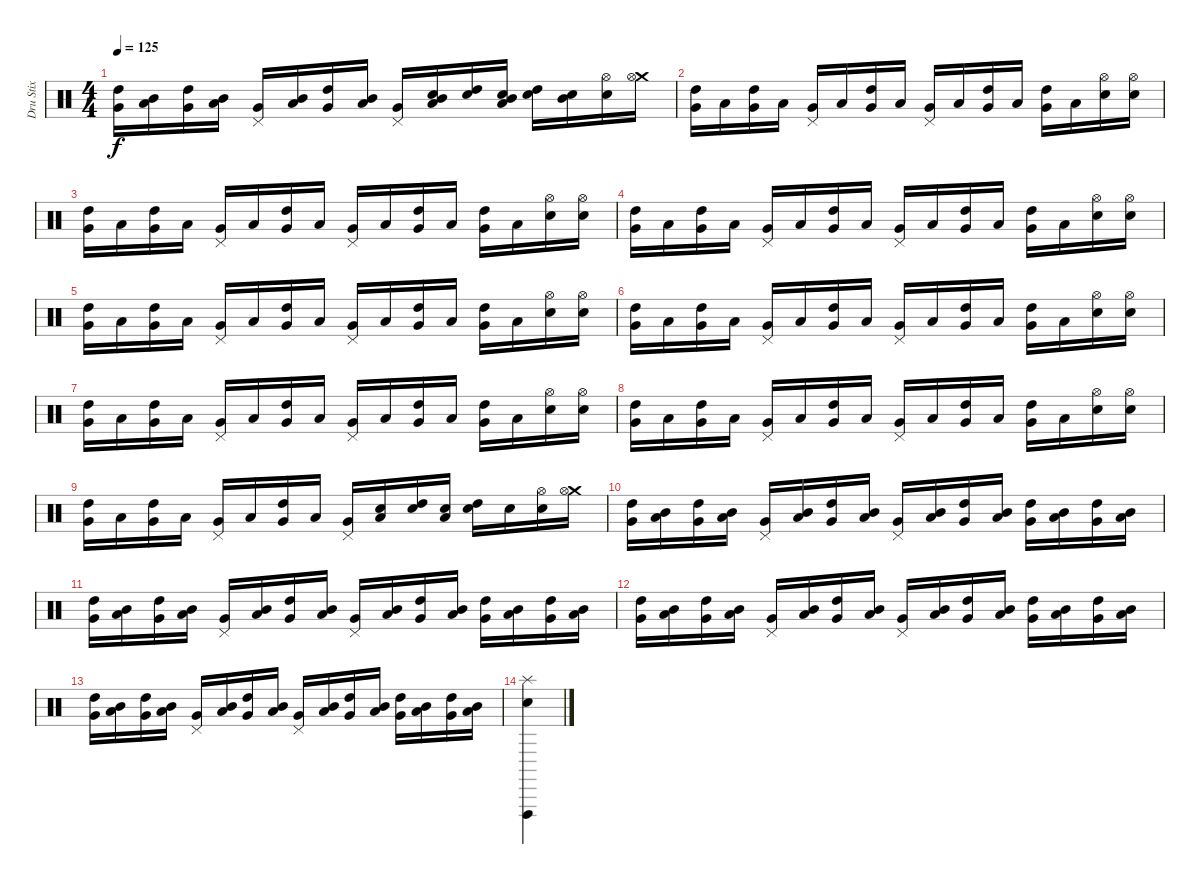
\track ("Dru Stix" "Dru Stix") {instrument percussion}
\staff {score}
\articulation defaults
\ts (4 4)
\tempo 125
\clef neutral
\ks c
("High Tom (hit)" "Very Low Tom (hit)").16{dy f} ("Mid Tom (hit)" "Low Floor Tom (hit)").16 ("High Tom (hit)" "Very Low Tom (hit)").16 ("Mid Tom (hit)" "Low Floor Tom (hit)").16 ("Pedal Hi-Hat (hit)" "Very Low Tom (hit)").16 ("Mid Tom (hit)" "Low Floor Tom (hit)").16 ("High Tom (hit)" "Very Low Tom (hit)").16 ("Mid Tom (hit)" "Low Floor Tom (hit)").16 ("Pedal Hi-Hat (hit)" "Very Low Tom (hit)").16 ("Mid Tom (hit)" "Low Floor Tom (hit)" "Snare (hit) 2").16 ("High Tom (hit)" "Snare (hit) 2").16 ("Mid Tom (hit)" "Low Floor Tom (hit)" "Snare (hit) 2").16 ("High Tom (hit)" "Snare (hit) 2").16 ("Mid Tom (hit)" "Snare (hit) 2").16 ("Hi-Hat (open)" "Snare (hit) 2").16 ("Crash medium (hit)" "Hi-Hat (open)").16 |
("High Tom (hit)" "Very Low Tom (hit)").16 "Low Floor Tom (hit)".16 ("High Tom (hit)" "Very Low Tom (hit)").16 "Low Floor Tom (hit)".16 ("Pedal Hi-Hat (hit)" "Very Low Tom (hit)").16 "Low Floor Tom (hit)".16 ("High Tom (hit)" "Very Low Tom (hit)").16 "Low Floor Tom (hit)".16 ("Pedal Hi-Hat (hit)" "Very Low Tom (hit)").16 "Low Floor Tom (hit)".16 ("High Tom (hit)" "Very Low Tom (hit)").16 "Low Floor Tom (hit)".16 ("High Tom (hit)" "Very Low Tom (hit)").16 "Low Floor Tom (hit)".16 ("Hi-Hat (open)" "Snare (hit) 2").16 ("Hi-Hat (open)" "Snare (hit) 2").16 |
("High Tom (hit)" "Very Low Tom (hit)").16 "Low Floor Tom (hit)".16 ("High Tom (hit)" "Very Low Tom (hit)").16 "Low Floor Tom (hit)".16 ("Pedal Hi-Hat (hit)" "Very Low Tom (hit)").16 "Low Floor Tom (hit)".16 ("High Tom (hit)" "Very Low Tom (hit)").16 "Low Floor Tom (hit)".16 ("Pedal Hi-Hat (hit)" "Very Low Tom (hit)").16 "Low Floor Tom (hit)".16 ("High Tom (hit)" "Very Low Tom (hit)").16 "Low Floor Tom (hit)".16 ("High Tom (hit)" "Very Low Tom (hit)").16 "Low Floor Tom (hit)".16 ("Hi-Hat (open)" "Snare (hit) 2").16 ("Hi-Hat (open)" "Snare (hit) 2").16 |
("High Tom (hit)" "Very Low Tom (hit)").16 "Low Floor Tom (hit)".16 ("High Tom (hit)" "Very Low Tom (hit)").16 "Low Floor Tom (hit)".16 ("Pedal Hi-Hat (hit)" "Very Low Tom (hit)").16 "Low Floor Tom (hit)".16 ("High Tom (hit)" "Very Low Tom (hit)").16 "Low Floor Tom (hit)".16 ("Pedal Hi-Hat (hit)" "Very Low Tom (hit)").16 "Low Floor Tom (hit)".16 ("High Tom (hit)" "Very Low Tom (hit)").16 "Low Floor Tom (hit)".16 ("High Tom (hit)" "Very Low Tom (hit)").16 "Low Floor Tom (hit)".16 ("Hi-Hat (open)" "Snare (hit) 2").16 ("Hi-Hat (open)" "Snare (hit) 2").16 |
("High Tom (hit)" "Very Low Tom (hit)").16 "Low Floor Tom (hit)".16 ("High Tom (hit)" "Very Low Tom (hit)").16 "Low Floor Tom (hit)".16 ("Pedal Hi-Hat (hit)" "Very Low Tom (hit)").16 "Low Floor Tom (hit)".16 ("High Tom (hit)" "Very Low Tom (hit)").16 "Low Floor Tom (hit)".16 ("Pedal Hi-Hat (hit)" "Very Low Tom (hit)").16 "Low Floor Tom (hit)".16 ("High Tom (hit)" "Very Low Tom (hit)").16 "Low Floor Tom (hit)".16 ("High Tom (hit)" "Very Low Tom (hit)").16 "Low Floor Tom (hit)".16 ("Hi-Hat (open)" "Snare (hit) 2").16 ("Hi-Hat (open)" "Snare (hit) 2").16 |
("High Tom (hit)" "Very Low Tom (hit)").16 "Low Floor Tom (hit)".16 ("High Tom (hit)" "Very Low Tom (hit)").16 "Low Floor Tom (hit)".16 ("Pedal Hi-Hat (hit)" "Very Low Tom (hit)").16 "Low Floor Tom (hit)".16 ("High Tom (hit)" "Very Low Tom (hit)").16 "Low Floor Tom (hit)".16 ("Pedal Hi-Hat (hit)" "Very Low Tom (hit)").16 "Low Floor Tom (hit)".16 ("High Tom (hit)" "Very Low Tom (hit)").16 "Low Floor Tom (hit)".16 ("High Tom (hit)" "Very Low Tom (hit)").16 "Low Floor Tom (hit)".16 ("Hi-Hat (open)" "Snare (hit) 2").16 ("Hi-Hat (open)" "Snare (hit) 2").16 |
("High Tom (hit)" "Very Low Tom (hit)").16 "Low Floor Tom (hit)".16 ("High Tom (hit)" "Very Low Tom (hit)").16 "Low Floor Tom (hit)".16 ("Pedal Hi-Hat (hit)" "Very Low Tom (hit)").16 "Low Floor Tom (hit)".16 ("High Tom (hit)" "Very Low Tom (hit)").16 "Low Floor Tom (hit)".16 ("Pedal Hi-Hat (hit)" "Very Low Tom (hit)").16 "Low Floor Tom (hit)".16 ("High Tom (hit)" "Very Low Tom (hit)").16 "Low Floor Tom (hit)".16 ("High Tom (hit)" "Very Low Tom (hit)").16 "Low Floor Tom (hit)".16 ("Hi-Hat (open)" "Snare (hit) 2").16 ("Hi-Hat (open)" "Snare (hit) 2").16 |
("High Tom (hit)" "Very Low Tom (hit)").16 "Low Floor Tom (hit)".16 ("High Tom (hit)" "Very Low Tom (hit)").16 "Low Floor Tom (hit)".16 ("Pedal Hi-Hat (hit)" "Very Low Tom (hit)").16 "Low Floor Tom (hit)".16 ("High Tom (hit)" "Very Low Tom (hit)").16 "Low Floor Tom (hit)".16 ("Pedal Hi-Hat (hit)" "Very Low Tom (hit)").16 "Low Floor Tom (hit)".16 ("High Tom (hit)" "Very Low Tom (hit)").16 "Low Floor Tom (hit)".16 ("High Tom (hit)" "Very Low Tom (hit)").16 "Low Floor Tom (hit)".16 ("Hi-Hat (open)" "Snare (hit) 2").16 ("Hi-Hat (open)" "Snare (hit) 2").16 |
("High Tom (hit)" "Very Low Tom (hit)").16 "Low Floor Tom (hit)".16 ("High Tom (hit)" "Very Low Tom (hit)").16 "Low Floor Tom (hit)".16 ("Pedal Hi-Hat (hit)" "Very Low Tom (hit)").16 "Low Floor Tom (hit)".16 ("High Tom (hit)" "Very Low Tom (hit)").16 "Low Floor Tom (hit)".16 ("Pedal Hi-Hat (hit)" "Very Low Tom (hit)").16 ("Low Floor Tom (hit)" "Snare (hit) 2").16 ("High Tom (hit)" "Snare (hit) 2").16 ("Low Floor Tom (hit)" "Snare (hit) 2").16 ("High Tom (hit)" "Snare (hit) 2").16 "Snare (hit) 2".16 ("Hi-Hat (open)" "Snare (hit) 2").16 ("Crash medium (hit)" "Hi-Hat (open)").16 |
("High Tom (hit)" "Very Low Tom (hit)").16 ("Mid Tom (hit)" "Low Floor Tom (hit)").16 ("High Tom (hit)" "Very Low Tom (hit)").16 ("Mid Tom (hit)" "Low Floor Tom (hit)").16 ("Pedal Hi-Hat (hit)" "Very Low Tom (hit)").16 ("Mid Tom (hit)" "Low Floor Tom (hit)").16 ("High Tom (hit)" "Very Low Tom (hit)").16 ("Mid Tom (hit)" "Low Floor Tom (hit)").16 ("Pedal Hi-Hat (hit)" "Very Low Tom (hit)").16 ("Mid Tom (hit)" "Low Floor Tom (hit)").16 ("High Tom (hit)" "Very Low Tom (hit)").16 ("Mid Tom (hit)" "Low Floor Tom (hit)").16 ("High Tom (hit)" "Very Low Tom (hit)").16 ("Mid Tom (hit)" "Low Floor Tom (hit)").16 ("High Tom (hit)" "Very Low Tom (hit)").16 ("Mid Tom (hit)" "Low Floor Tom (hit)").16 |
("High Tom (hit)" "Very Low Tom (hit)").16 ("Mid Tom (hit)" "Low Floor Tom (hit)").16 ("High Tom (hit)" "Very Low Tom (hit)").16 ("Mid Tom (hit)" "Low Floor Tom (hit)").16 ("Pedal Hi-Hat (hit)" "Very Low Tom (hit)").16 ("Mid Tom (hit)" "Low Floor Tom (hit)").16 ("High Tom (hit)" "Very Low Tom (hit)").16 ("Mid Tom (hit)" "Low Floor Tom (hit)").16 ("Pedal Hi-Hat (hit)" "Very Low Tom (hit)").16 ("Mid Tom (hit)" "Low Floor Tom (hit)").16 ("High Tom (hit)" "Very Low Tom (hit)").16 ("Mid Tom (hit)" "Low Floor Tom (hit)").16 ("High Tom (hit)" "Very Low Tom (hit)").16 ("Mid Tom (hit)" "Low Floor Tom (hit)").16 ("High Tom (hit)" "Very Low Tom (hit)").16 ("Mid Tom (hit)" "Low Floor Tom (hit)").16 |
("High Tom (hit)" "Very Low Tom (hit)").16 ("Mid Tom (hit)" "Low Floor Tom (hit)").16 ("High Tom (hit)" "Very Low Tom (hit)").16 ("Mid Tom (hit)" "Low Floor Tom (hit)").16 ("Pedal Hi-Hat (hit)" "Very Low Tom (hit)").16 ("Mid Tom (hit)" "Low Floor Tom (hit)").16 ("High Tom (hit)" "Very Low Tom (hit)").16 ("Mid Tom (hit)" "Low Floor Tom (hit)").16 ("Pedal Hi-Hat (hit)" "Very Low Tom (hit)").16 ("Mid Tom (hit)" "Low Floor Tom (hit)").16 ("High Tom (hit)" "Very Low Tom (hit)").16 ("Mid Tom (hit)" "Low Floor Tom (hit)").16 ("High Tom (hit)" "Very Low Tom (hit)").16 ("Mid Tom (hit)" "Low Floor Tom (hit)").16 ("High Tom (hit)" "Very Low Tom (hit)").16 ("Mid Tom (hit)" "Low Floor Tom (hit)").16 |
("High Tom (hit)" "Very Low Tom (hit)").16 ("Mid Tom (hit)" "Low Floor Tom (hit)").16 ("High Tom (hit)" "Very Low Tom (hit)").16 ("Mid Tom (hit)" "Low Floor Tom (hit)").16 ("Pedal Hi-Hat (hit)" "Very Low Tom (hit)").16 ("Mid Tom (hit)" "Low Floor Tom (hit)").16 ("High Tom (hit)" "Very Low Tom (hit)").16 ("Mid Tom (hit)" "Low Floor Tom (hit)").16 ("Pedal Hi-Hat (hit)" "Very Low Tom (hit)").16 ("Mid Tom (hit)" "Low Floor Tom (hit)").16 ("High Tom (hit)" "Very Low Tom (hit)").16 ("Mid Tom (hit)" "Low Floor Tom (hit)").16 ("High Tom (hit)" "Very Low Tom (hit)").16 ("Mid Tom (hit)" "Low Floor Tom (hit)").16 ("High Tom (hit)" "Very Low Tom (hit)").16 ("Mid Tom (hit)" "Low Floor Tom (hit)").16 |
("Vibraslap (hit)" "Splash (hit)" "Snare (hit) 2").4
